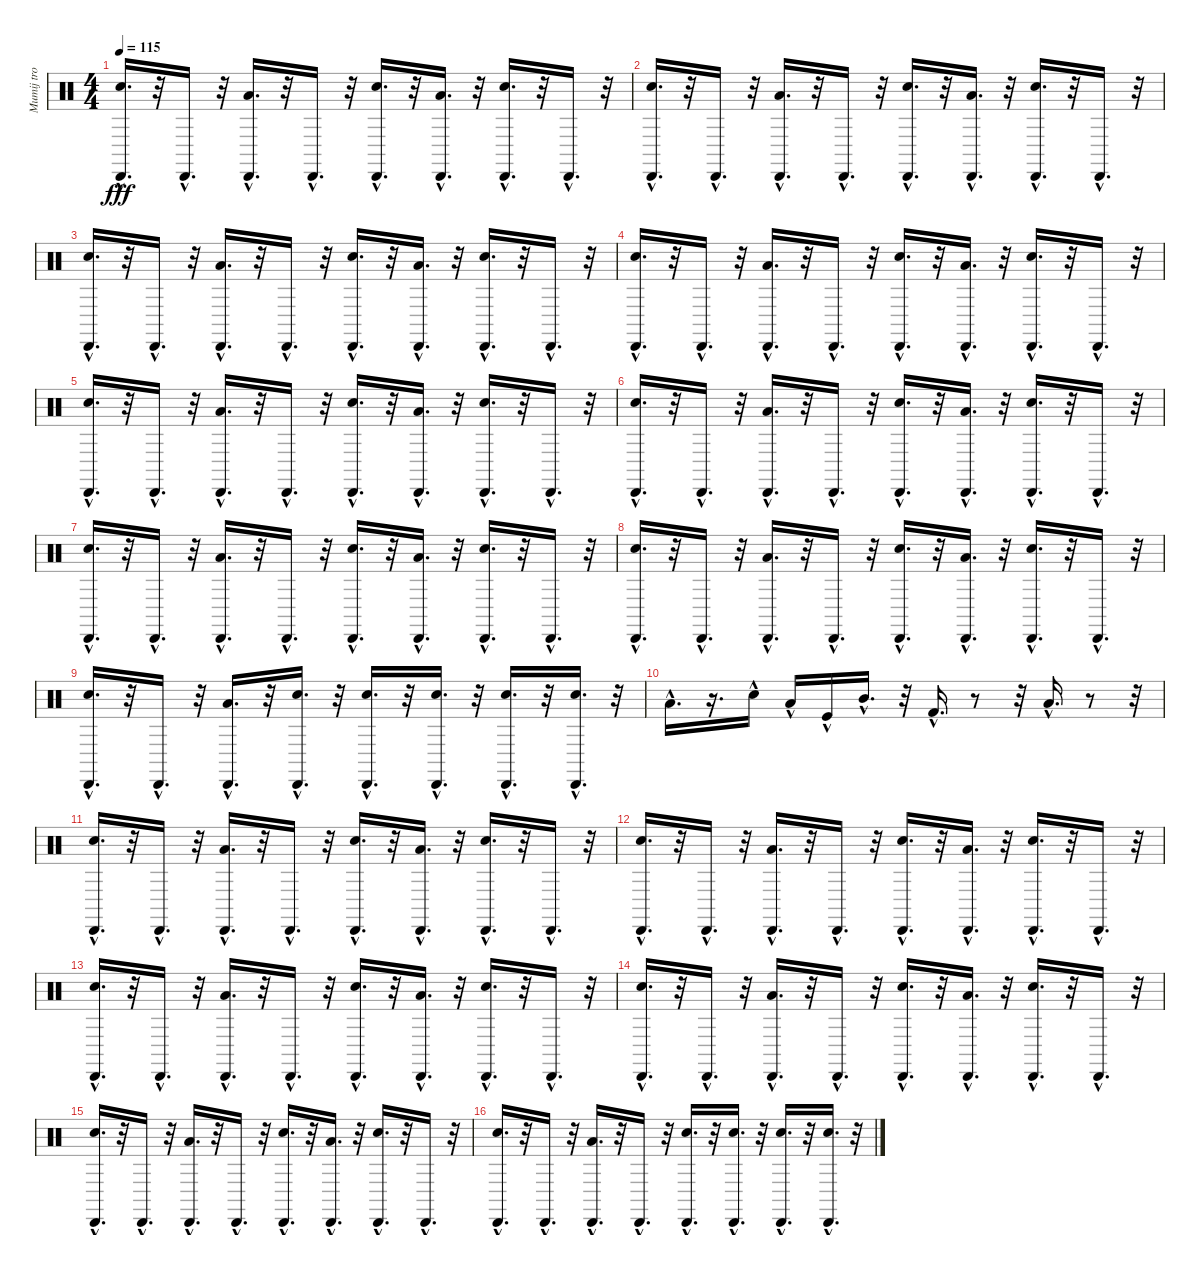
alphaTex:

\track (" Mumij troll" " Mumij tro") {instrument percussion}
\staff {score}
\articulation defaults
\ts (4 4)
\tempo 115
\clef neutral
\ks c
("Electric Snare (hit)"{hac} "Cabasa (hit)"{hac}).16{d dy fff} r.32 "Cabasa (hit)"{hac}.16{d} r.32 ("Low Tom (hit)"{hac} "Cabasa (hit)"{hac}).16{d} r.32 "Cabasa (hit)"{hac}.16{d} r.32 ("Electric Snare (hit)"{hac} "Cabasa (hit)"{hac}).16{d} r.32 ("Low Floor Tom (hit)"{hac} "Cabasa (hit)"{hac}).16{d} r.32 ("Snare (hit) 2"{hac} "Cabasa (hit)"{hac}).16{d} r.32 "Cabasa (hit)"{hac}.16{d} r.32 |
("Electric Snare (hit)"{hac} "Cabasa (hit)"{hac}).16{d} r.32 "Cabasa (hit)"{hac}.16{d} r.32 ("Low Tom (hit)"{hac} "Cabasa (hit)"{hac}).16{d} r.32 "Cabasa (hit)"{hac}.16{d} r.32 ("Electric Snare (hit)"{hac} "Cabasa (hit)"{hac}).16{d} r.32 ("Low Floor Tom (hit)"{hac} "Cabasa (hit)"{hac}).16{d} r.32 ("Snare (hit) 2"{hac} "Cabasa (hit)"{hac}).16{d} r.32 "Cabasa (hit)"{hac}.16{d} r.32 |
("Electric Snare (hit)"{hac} "Cabasa (hit)"{hac}).16{d} r.32 "Cabasa (hit)"{hac}.16{d} r.32 ("Low Tom (hit)"{hac} "Cabasa (hit)"{hac}).16{d} r.32 "Cabasa (hit)"{hac}.16{d} r.32 ("Electric Snare (hit)"{hac} "Cabasa (hit)"{hac}).16{d} r.32 ("Low Floor Tom (hit)"{hac} "Cabasa (hit)"{hac}).16{d} r.32 ("Snare (hit) 2"{hac} "Cabasa (hit)"{hac}).16{d} r.32 "Cabasa (hit)"{hac}.16{d} r.32 |
("Electric Snare (hit)"{hac} "Cabasa (hit)"{hac}).16{d} r.32 "Cabasa (hit)"{hac}.16{d} r.32 ("Low Tom (hit)"{hac} "Cabasa (hit)"{hac}).16{d} r.32 "Cabasa (hit)"{hac}.16{d} r.32 ("Electric Snare (hit)"{hac} "Cabasa (hit)"{hac}).16{d} r.32 ("Low Floor Tom (hit)"{hac} "Cabasa (hit)"{hac}).16{d} r.32 ("Snare (hit) 2"{hac} "Cabasa (hit)"{hac}).16{d} r.32 "Cabasa (hit)"{hac}.16{d} r.32 |
("Electric Snare (hit)"{hac} "Cabasa (hit)"{hac}).16{d} r.32 "Cabasa (hit)"{hac}.16{d} r.32 ("Low Tom (hit)"{hac} "Cabasa (hit)"{hac}).16{d} r.32 "Cabasa (hit)"{hac}.16{d} r.32 ("Electric Snare (hit)"{hac} "Cabasa (hit)"{hac}).16{d} r.32 ("Low Floor Tom (hit)"{hac} "Cabasa (hit)"{hac}).16{d} r.32 ("Snare (hit) 2"{hac} "Cabasa (hit)"{hac}).16{d} r.32 "Cabasa (hit)"{hac}.16{d} r.32 |
("Electric Snare (hit)"{hac} "Cabasa (hit)"{hac}).16{d} r.32 "Cabasa (hit)"{hac}.16{d} r.32 ("Low Tom (hit)"{hac} "Cabasa (hit)"{hac}).16{d} r.32 "Cabasa (hit)"{hac}.16{d} r.32 ("Electric Snare (hit)"{hac} "Cabasa (hit)"{hac}).16{d} r.32 ("Low Floor Tom (hit)"{hac} "Cabasa (hit)"{hac}).16{d} r.32 ("Snare (hit) 2"{hac} "Cabasa (hit)"{hac}).16{d} r.32 "Cabasa (hit)"{hac}.16{d} r.32 |
("Electric Snare (hit)"{hac} "Cabasa (hit)"{hac}).16{d} r.32 "Cabasa (hit)"{hac}.16{d} r.32 ("Low Tom (hit)"{hac} "Cabasa (hit)"{hac}).16{d} r.32 "Cabasa (hit)"{hac}.16{d} r.32 ("Electric Snare (hit)"{hac} "Cabasa (hit)"{hac}).16{d} r.32 ("Low Floor Tom (hit)"{hac} "Cabasa (hit)"{hac}).16{d} r.32 ("Snare (hit) 2"{hac} "Cabasa (hit)"{hac}).16{d} r.32 "Cabasa (hit)"{hac}.16{d} r.32 |
("Electric Snare (hit)"{hac} "Cabasa (hit)"{hac}).16{d} r.32 "Cabasa (hit)"{hac}.16{d} r.32 ("Low Tom (hit)"{hac} "Cabasa (hit)"{hac}).16{d} r.32 "Cabasa (hit)"{hac}.16{d} r.32 ("Electric Snare (hit)"{hac} "Cabasa (hit)"{hac}).16{d} r.32 ("Low Floor Tom (hit)"{hac} "Cabasa (hit)"{hac}).16{d} r.32 ("Snare (hit) 2"{hac} "Cabasa (hit)"{hac}).16{d} r.32 "Cabasa (hit)"{hac}.16{d} r.32 |
("Electric Snare (hit)"{hac} "Cabasa (hit)"{hac}).16{d} r.32 "Cabasa (hit)"{hac}.16{d} r.32 ("Low Tom (hit)"{hac} "Cabasa (hit)"{hac}).16{d} r.32 ("Electric Snare (hit)"{hac} "Cabasa (hit)"{hac}).16{d} r.32 ("Electric Snare (hit)"{hac} "Cabasa (hit)"{hac}).16{d} r.32 ("Electric Snare (hit)"{hac} "Cabasa (hit)"{hac}).16{d} r.32 ("Electric Snare (hit)"{hac} "Cabasa (hit)"{hac}).16{d} r.32 ("Electric Snare (hit)"{hac} "Cabasa (hit)"{hac}).16{d} r.32 |
"Low Tom (hit)"{hac}.16{d} r.16{d} "Snare (hit) 2"{hac}.16 "Low Floor Tom (hit)"{hac}.16 "Kick (hit)"{hac}.16 "Mid Tom (hit)"{hac}.16{d} r.32 "Kick (hit) 2"{hac}.16{d} r.8 r.32 "Low Floor Tom (hit)"{hac}.16{d} r.8 r.32 |
("Electric Snare (hit)"{hac} "Cabasa (hit)"{hac}).16{d} r.32 "Cabasa (hit)"{hac}.16{d} r.32 ("Low Tom (hit)"{hac} "Cabasa (hit)"{hac}).16{d} r.32 "Cabasa (hit)"{hac}.16{d} r.32 ("Electric Snare (hit)"{hac} "Cabasa (hit)"{hac}).16{d} r.32 ("Low Floor Tom (hit)"{hac} "Cabasa (hit)"{hac}).16{d} r.32 ("Snare (hit) 2"{hac} "Cabasa (hit)"{hac}).16{d} r.32 "Cabasa (hit)"{hac}.16{d} r.32 |
("Electric Snare (hit)"{hac} "Cabasa (hit)"{hac}).16{d} r.32 "Cabasa (hit)"{hac}.16{d} r.32 ("Low Tom (hit)"{hac} "Cabasa (hit)"{hac}).16{d} r.32 "Cabasa (hit)"{hac}.16{d} r.32 ("Electric Snare (hit)"{hac} "Cabasa (hit)"{hac}).16{d} r.32 ("Low Floor Tom (hit)"{hac} "Cabasa (hit)"{hac}).16{d} r.32 ("Snare (hit) 2"{hac} "Cabasa (hit)"{hac}).16{d} r.32 "Cabasa (hit)"{hac}.16{d} r.32 |
("Electric Snare (hit)"{hac} "Cabasa (hit)"{hac}).16{d} r.32 "Cabasa (hit)"{hac}.16{d} r.32 ("Low Tom (hit)"{hac} "Cabasa (hit)"{hac}).16{d} r.32 "Cabasa (hit)"{hac}.16{d} r.32 ("Electric Snare (hit)"{hac} "Cabasa (hit)"{hac}).16{d} r.32 ("Low Floor Tom (hit)"{hac} "Cabasa (hit)"{hac}).16{d} r.32 ("Snare (hit) 2"{hac} "Cabasa (hit)"{hac}).16{d} r.32 "Cabasa (hit)"{hac}.16{d} r.32 |
("Electric Snare (hit)"{hac} "Cabasa (hit)"{hac}).16{d} r.32 "Cabasa (hit)"{hac}.16{d} r.32 ("Low Tom (hit)"{hac} "Cabasa (hit)"{hac}).16{d} r.32 "Cabasa (hit)"{hac}.16{d} r.32 ("Electric Snare (hit)"{hac} "Cabasa (hit)"{hac}).16{d} r.32 ("Low Floor Tom (hit)"{hac} "Cabasa (hit)"{hac}).16{d} r.32 ("Snare (hit) 2"{hac} "Cabasa (hit)"{hac}).16{d} r.32 "Cabasa (hit)"{hac}.16{d} r.32 |
("Electric Snare (hit)"{hac} "Cabasa (hit)"{hac}).16{d} r.32 "Cabasa (hit)"{hac}.16{d} r.32 ("Low Tom (hit)"{hac} "Cabasa (hit)"{hac}).16{d} r.32 "Cabasa (hit)"{hac}.16{d} r.32 ("Electric Snare (hit)"{hac} "Cabasa (hit)"{hac}).16{d} r.32 ("Low Floor Tom (hit)"{hac} "Cabasa (hit)"{hac}).16{d} r.32 ("Snare (hit) 2"{hac} "Cabasa (hit)"{hac}).16{d} r.32 "Cabasa (hit)"{hac}.16{d} r.32 |
("Electric Snare (hit)"{hac} "Cabasa (hit)"{hac}).16{d} r.32 "Cabasa (hit)"{hac}.16{d} r.32 ("Low Tom (hit)"{hac} "Cabasa (hit)"{hac}).16{d} r.32 "Cabasa (hit)"{hac}.16{d} r.32 ("Electric Snare (hit)"{hac} "Cabasa (hit)"{hac}).16{d} r.32 ("Electric Snare (hit)"{hac} "Cabasa (hit)"{hac}).16{d} r.32 ("Electric Snare (hit)"{hac} "Cabasa (hit)"{hac}).16{d} r.32 ("Electric Snare (hit)"{hac} "Cabasa (hit)"{hac}).16{d} r.32
